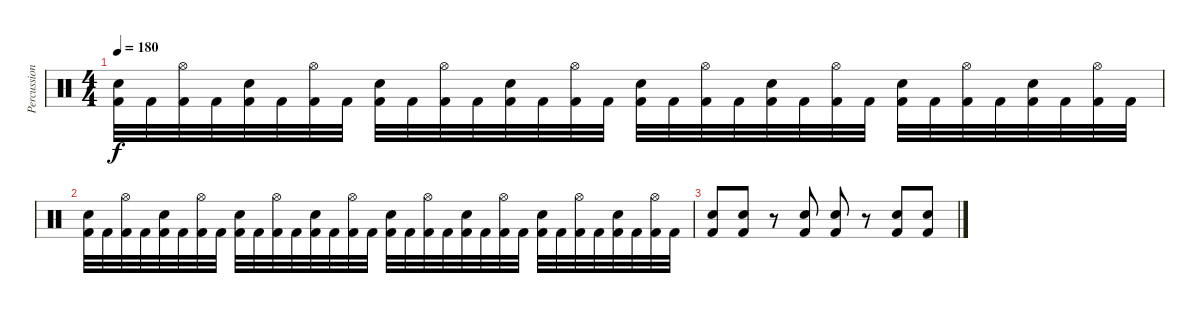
\track ("Percussion" "Percussion") {instrument percussion}
\staff {score}
\articulation defaults
\ts (4 4)
\tempo 180
\clef neutral
\ks c
("Snare (hit) 2" "Kick (hit) 2").32{dy f} "Kick (hit) 2".32 ("Hi-Hat (open)" "Kick (hit) 2").32 "Kick (hit) 2".32 ("Snare (hit) 2" "Kick (hit) 2").32 "Kick (hit) 2".32 ("Hi-Hat (open)" "Kick (hit) 2").32 "Kick (hit) 2".32 ("Snare (hit) 2" "Kick (hit) 2").32 "Kick (hit) 2".32 ("Hi-Hat (open)" "Kick (hit) 2").32 "Kick (hit) 2".32 ("Snare (hit) 2" "Kick (hit) 2").32 "Kick (hit) 2".32 ("Hi-Hat (open)" "Kick (hit) 2").32 "Kick (hit) 2".32 ("Snare (hit) 2" "Kick (hit) 2").32 "Kick (hit) 2".32 ("Hi-Hat (open)" "Kick (hit) 2").32 "Kick (hit) 2".32 ("Snare (hit) 2" "Kick (hit) 2").32 "Kick (hit) 2".32 ("Hi-Hat (open)" "Kick (hit) 2").32 "Kick (hit) 2".32 ("Snare (hit) 2" "Kick (hit) 2").32 "Kick (hit) 2".32 ("Hi-Hat (open)" "Kick (hit) 2").32 "Kick (hit) 2".32 ("Snare (hit) 2" "Kick (hit) 2").32 "Kick (hit) 2".32 ("Hi-Hat (open)" "Kick (hit) 2").32 "Kick (hit) 2".32 |
("Snare (hit) 2" "Kick (hit) 2").32 "Kick (hit) 2".32 ("Hi-Hat (open)" "Kick (hit) 2").32 "Kick (hit) 2".32 ("Snare (hit) 2" "Kick (hit) 2").32 "Kick (hit) 2".32 ("Hi-Hat (open)" "Kick (hit) 2").32 "Kick (hit) 2".32 ("Snare (hit) 2" "Kick (hit) 2").32 "Kick (hit) 2".32 ("Hi-Hat (open)" "Kick (hit) 2").32 "Kick (hit) 2".32 ("Snare (hit) 2" "Kick (hit) 2").32 "Kick (hit) 2".32 ("Hi-Hat (open)" "Kick (hit) 2").32 "Kick (hit) 2".32 ("Snare (hit) 2" "Kick (hit) 2").32 "Kick (hit) 2".32 ("Hi-Hat (open)" "Kick (hit) 2").32 "Kick (hit) 2".32 ("Snare (hit) 2" "Kick (hit) 2").32 "Kick (hit) 2".32 ("Hi-Hat (open)" "Kick (hit) 2").32 "Kick (hit) 2".32 ("Snare (hit) 2" "Kick (hit) 2").32 "Kick (hit) 2".32 ("Hi-Hat (open)" "Kick (hit) 2").32 "Kick (hit) 2".32 ("Snare (hit) 2" "Kick (hit) 2").32 "Kick (hit) 2".32 ("Hi-Hat (open)" "Kick (hit) 2").32 "Kick (hit) 2".32 |
("Snare (hit) 2" "Kick (hit) 2").8 ("Snare (hit) 2" "Kick (hit) 2").8 r.8 ("Snare (hit) 2" "Kick (hit) 2").8 ("Snare (hit) 2" "Kick (hit) 2").8 r.8 ("Snare (hit) 2" "Kick (hit) 2").8 ("Snare (hit) 2" "Kick (hit) 2").8
